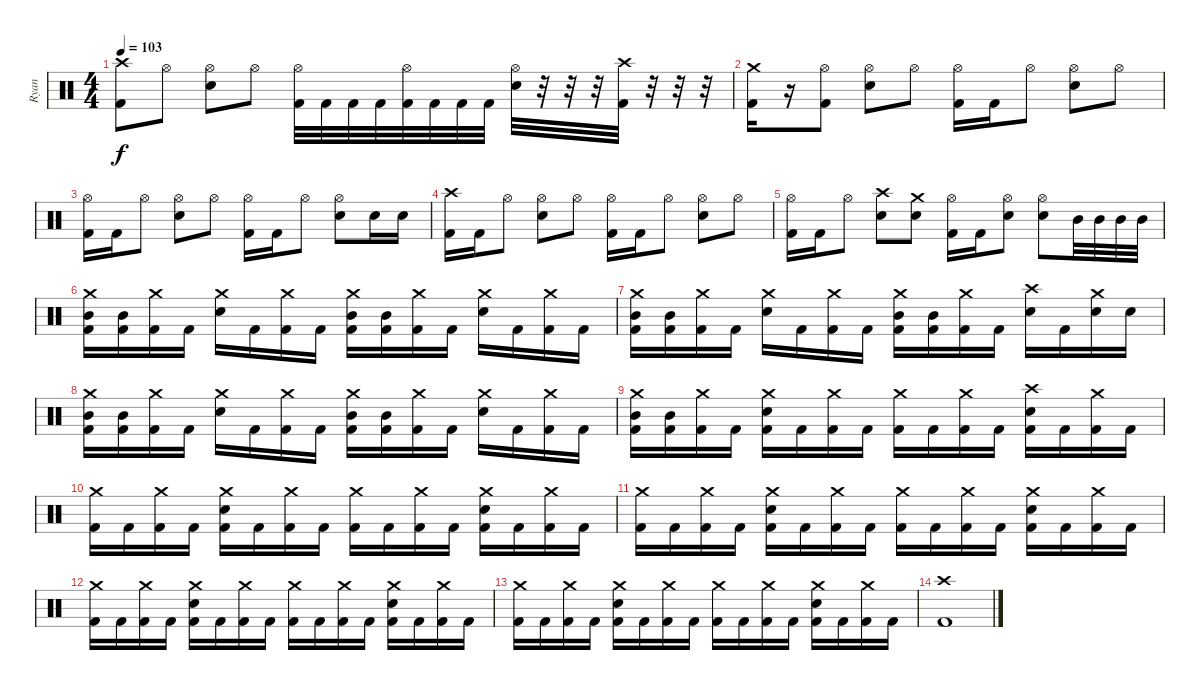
\track ("Ryan" "Ryan") {instrument percussion}
\staff {score}
\articulation defaults
\ts (4 4)
\tempo 103
\clef neutral
\ks c
("Crash high (hit)" "Kick (hit) 2").8{dy f} "Hi-Hat (open)".8 ("Hi-Hat (open)" "Electric Snare (hit)").8 "Hi-Hat (open)".8 ("Hi-Hat (open)" "Kick (hit) 2").32 "Kick (hit) 2".32 "Kick (hit) 2".32 "Kick (hit) 2".32 ("Hi-Hat (open)" "Kick (hit) 2").32 "Kick (hit) 2".32 "Kick (hit) 2".32 "Kick (hit) 2".32 ("Hi-Hat (open)" "Electric Snare (hit)").32 r.32 r.32 r.32 ("Crash high (hit)" "Kick (hit) 2").32 r.32 r.32 r.32 |
("Crash medium (hit)" "Kick (hit) 2").16 r.16 ("Hi-Hat (open)" "Kick (hit) 2").8 ("Hi-Hat (open)" "Electric Snare (hit)").8 "Hi-Hat (open)".8 ("Hi-Hat (open)" "Kick (hit) 2").16 "Kick (hit) 2".16 "Hi-Hat (open)".8 ("Hi-Hat (open)" "Electric Snare (hit)").8 "Hi-Hat (open)".8 |
("Hi-Hat (open)" "Kick (hit) 2").16 "Kick (hit) 2".16 "Hi-Hat (open)".8 ("Hi-Hat (open)" "Electric Snare (hit)").8 "Hi-Hat (open)".8 ("Hi-Hat (open)" "Kick (hit) 2").16 "Kick (hit) 2".16 "Hi-Hat (open)".8 ("Hi-Hat (open)" "Electric Snare (hit)").8 "Electric Snare (hit)".16 "Electric Snare (hit)".16 |
("Crash high (hit)" "Kick (hit) 2").16 "Kick (hit) 2".16 "Hi-Hat (open)".8 ("Hi-Hat (open)" "Electric Snare (hit)").8 "Hi-Hat (open)".8 ("Hi-Hat (open)" "Kick (hit) 2").16 "Kick (hit) 2".16 "Hi-Hat (open)".8 ("Hi-Hat (open)" "Electric Snare (hit)").8 "Hi-Hat (open)".8 |
("Hi-Hat (open)" "Kick (hit) 2").16 "Kick (hit) 2".16 "Hi-Hat (open)".8 ("Crash high (hit)" "Electric Snare (hit)").8 ("Crash medium (hit)" "Electric Snare (hit)").8 ("Hi-Hat (open)" "Kick (hit) 2").16 "Kick (hit) 2".16 ("Hi-Hat (open)" "Electric Snare (hit)").8 ("Hi-Hat (open)" "Electric Snare (hit)").8 "Mid Tom (hit)".32 "Mid Tom (hit)".32 "Mid Tom (hit)".32 "Mid Tom (hit)".32 |
("Crash medium (hit)" "Mid Tom (hit)" "Kick (hit) 2").16 ("Mid Tom (hit)" "Kick (hit) 2").16 ("Crash medium (hit)" "Kick (hit) 2").16 "Kick (hit) 2".16 ("Crash medium (hit)" "Electric Snare (hit)").16 "Kick (hit) 2".16 ("Crash medium (hit)" "Kick (hit) 2").16 "Kick (hit) 2".16 ("Crash medium (hit)" "Mid Tom (hit)" "Kick (hit) 2").16 ("Mid Tom (hit)" "Kick (hit) 2").16 ("Crash medium (hit)" "Kick (hit) 2").16 "Kick (hit) 2".16 ("Crash medium (hit)" "Electric Snare (hit)").16 "Kick (hit) 2".16 ("Crash medium (hit)" "Kick (hit) 2").16 "Kick (hit) 2".16 |
("Crash medium (hit)" "Mid Tom (hit)" "Kick (hit) 2").16 ("Mid Tom (hit)" "Kick (hit) 2").16 ("Crash medium (hit)" "Kick (hit) 2").16 "Kick (hit) 2".16 ("Crash medium (hit)" "Electric Snare (hit)").16 "Kick (hit) 2".16 ("Crash medium (hit)" "Kick (hit) 2").16 "Kick (hit) 2".16 ("Crash medium (hit)" "Mid Tom (hit)" "Kick (hit) 2").16 ("Mid Tom (hit)" "Kick (hit) 2").16 ("Crash medium (hit)" "Kick (hit) 2").16 "Kick (hit) 2".16 ("Crash high (hit)" "Electric Snare (hit)").16 "Kick (hit) 2".16 ("Crash medium (hit)" "Electric Snare (hit)").16 "Electric Snare (hit)".16 |
("Crash medium (hit)" "Mid Tom (hit)" "Kick (hit) 2").16 ("Mid Tom (hit)" "Kick (hit) 2").16 ("Crash medium (hit)" "Kick (hit) 2").16 "Kick (hit) 2".16 ("Crash medium (hit)" "Electric Snare (hit)").16 "Kick (hit) 2".16 ("Crash medium (hit)" "Kick (hit) 2").16 "Kick (hit) 2".16 ("Crash medium (hit)" "Mid Tom (hit)" "Kick (hit) 2").16 ("Mid Tom (hit)" "Kick (hit) 2").16 ("Crash medium (hit)" "Kick (hit) 2").16 "Kick (hit) 2".16 ("Crash medium (hit)" "Electric Snare (hit)").16 "Kick (hit) 2".16 ("Crash medium (hit)" "Kick (hit) 2").16 "Kick (hit) 2".16 |
("Crash medium (hit)" "Mid Tom (hit)" "Kick (hit) 2").16 ("Mid Tom (hit)" "Kick (hit) 2").16 ("Crash medium (hit)" "Kick (hit) 2").16 "Kick (hit) 2".16 ("Crash medium (hit)" "Electric Snare (hit)" "Kick (hit) 2").16 "Kick (hit) 2".16 ("Crash medium (hit)" "Kick (hit) 2").16 "Kick (hit) 2".16 ("Crash medium (hit)" "Kick (hit) 2").16 "Kick (hit) 2".16 ("Crash medium (hit)" "Kick (hit) 2").16 "Kick (hit) 2".16 ("Crash high (hit)" "Electric Snare (hit)" "Kick (hit) 2").16 "Kick (hit) 2".16 ("Crash medium (hit)" "Kick (hit) 2").16 "Kick (hit) 2".16 |
("Crash medium (hit)" "Kick (hit) 2").16 "Kick (hit) 2".16 ("Crash medium (hit)" "Kick (hit) 2").16 "Kick (hit) 2".16 ("Crash medium (hit)" "Electric Snare (hit)" "Kick (hit) 2").16 "Kick (hit) 2".16 ("Crash medium (hit)" "Kick (hit) 2").16 "Kick (hit) 2".16 ("Crash medium (hit)" "Kick (hit) 2").16 "Kick (hit) 2".16 ("Crash medium (hit)" "Kick (hit) 2").16 "Kick (hit) 2".16 ("Crash medium (hit)" "Electric Snare (hit)" "Kick (hit) 2").16 "Kick (hit) 2".16 ("Crash medium (hit)" "Kick (hit) 2").16 "Kick (hit) 2".16 |
("Crash medium (hit)" "Kick (hit) 2").16 "Kick (hit) 2".16 ("Crash medium (hit)" "Kick (hit) 2").16 "Kick (hit) 2".16 ("Crash medium (hit)" "Electric Snare (hit)" "Kick (hit) 2").16 "Kick (hit) 2".16 ("Crash medium (hit)" "Kick (hit) 2").16 "Kick (hit) 2".16 ("Crash medium (hit)" "Kick (hit) 2").16 "Kick (hit) 2".16 ("Crash medium (hit)" "Kick (hit) 2").16 "Kick (hit) 2".16 ("Crash medium (hit)" "Electric Snare (hit)" "Kick (hit) 2").16 "Kick (hit) 2".16 ("Crash medium (hit)" "Kick (hit) 2").16 "Kick (hit) 2".16 |
("Crash medium (hit)" "Kick (hit) 2").16 "Kick (hit) 2".16 ("Crash medium (hit)" "Kick (hit) 2").16 "Kick (hit) 2".16 ("Crash medium (hit)" "Electric Snare (hit)" "Kick (hit) 2").16 "Kick (hit) 2".16 ("Crash medium (hit)" "Kick (hit) 2").16 "Kick (hit) 2".16 ("Crash medium (hit)" "Kick (hit) 2").16 "Kick (hit) 2".16 ("Crash medium (hit)" "Kick (hit) 2").16 "Kick (hit) 2".16 ("Crash medium (hit)" "Electric Snare (hit)" "Kick (hit) 2").16 "Kick (hit) 2".16 ("Crash medium (hit)" "Kick (hit) 2").16 "Kick (hit) 2".16 |
("Crash medium (hit)" "Kick (hit) 2").16 "Kick (hit) 2".16 ("Crash medium (hit)" "Kick (hit) 2").16 "Kick (hit) 2".16 ("Crash medium (hit)" "Electric Snare (hit)" "Kick (hit) 2").16 "Kick (hit) 2".16 ("Crash medium (hit)" "Kick (hit) 2").16 "Kick (hit) 2".16 ("Crash medium (hit)" "Kick (hit) 2").16 "Kick (hit) 2".16 ("Crash medium (hit)" "Kick (hit) 2").16 "Kick (hit) 2".16 ("Crash medium (hit)" "Electric Snare (hit)" "Kick (hit) 2").16 "Kick (hit) 2".16 ("Crash medium (hit)" "Kick (hit) 2").16 "Kick (hit) 2".16 |
("Crash high (hit)" "Kick (hit) 2").1
